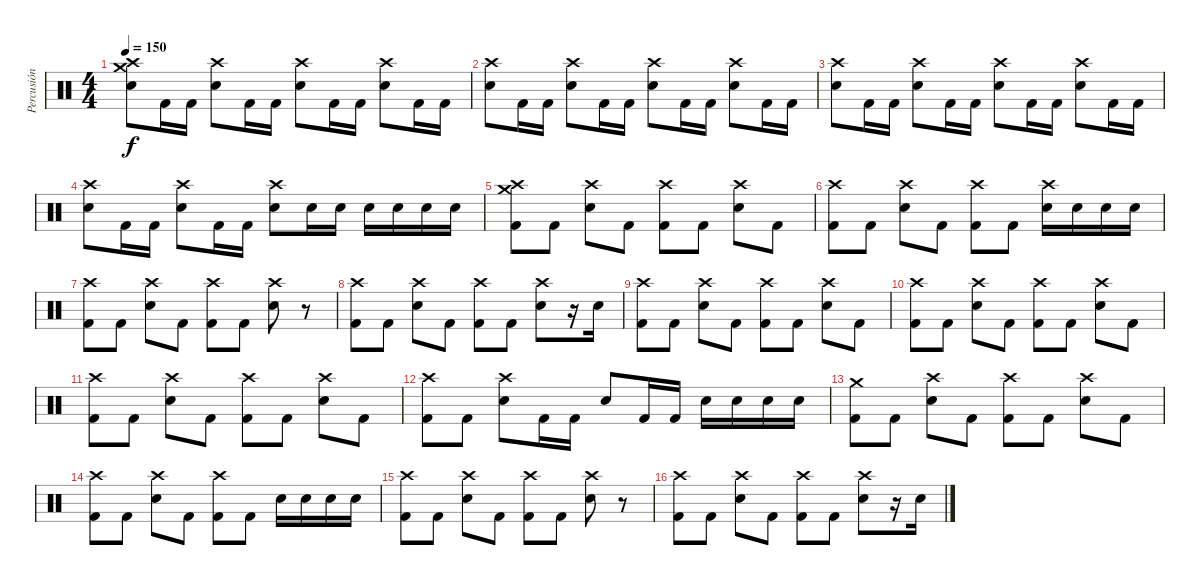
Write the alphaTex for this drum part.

\track ("Percusión" "Percusión") {instrument percussion}
\staff {score}
\articulation defaults
\ts (4 4)
\tempo 150
\clef neutral
\ks c
("Electric Snare (hit)" "Crash high (hit)" "Crash medium (hit)").8{dy f} "Kick (hit) 2".16 "Kick (hit) 2".16 ("Electric Snare (hit)" "Crash high (hit)").8 "Kick (hit) 2".16 "Kick (hit) 2".16 ("Electric Snare (hit)" "Crash high (hit)").8 "Kick (hit) 2".16 "Kick (hit) 2".16 ("Electric Snare (hit)" "Crash high (hit)").8 "Kick (hit) 2".16 "Kick (hit) 2".16 |
("Electric Snare (hit)" "Crash high (hit)").8 "Kick (hit) 2".16 "Kick (hit) 2".16 ("Electric Snare (hit)" "Crash high (hit)").8 "Kick (hit) 2".16 "Kick (hit) 2".16 ("Electric Snare (hit)" "Crash high (hit)").8 "Kick (hit) 2".16 "Kick (hit) 2".16 ("Electric Snare (hit)" "Crash high (hit)").8 "Kick (hit) 2".16 "Kick (hit) 2".16 |
("Electric Snare (hit)" "Crash high (hit)").8 "Kick (hit) 2".16 "Kick (hit) 2".16 ("Electric Snare (hit)" "Crash high (hit)").8 "Kick (hit) 2".16 "Kick (hit) 2".16 ("Electric Snare (hit)" "Crash high (hit)").8 "Kick (hit) 2".16 "Kick (hit) 2".16 ("Electric Snare (hit)" "Crash high (hit)").8 "Kick (hit) 2".16 "Kick (hit) 2".16 |
("Electric Snare (hit)" "Crash high (hit)").8 "Kick (hit) 2".16 "Kick (hit) 2".16 ("Electric Snare (hit)" "Crash high (hit)").8 "Kick (hit) 2".16 "Kick (hit) 2".16 ("Electric Snare (hit)" "Crash high (hit)").8 "Electric Snare (hit)".16 "Electric Snare (hit)".16 "Electric Snare (hit)".16 "Electric Snare (hit)".16 "Electric Snare (hit)".16 "Electric Snare (hit)".16 |
("Kick (hit) 2" "Crash medium (hit)" "Crash high (hit)").8 "Kick (hit) 2".8 ("Electric Snare (hit)" "Crash high (hit)").8 "Kick (hit) 2".8 ("Kick (hit) 2" "Crash high (hit)").8 "Kick (hit) 2".8 ("Electric Snare (hit)" "Crash high (hit)").8 "Kick (hit) 2".8 |
("Kick (hit) 2" "Crash high (hit)").8 "Kick (hit) 2".8 ("Electric Snare (hit)" "Crash high (hit)").8 "Kick (hit) 2".8 ("Kick (hit) 2" "Crash high (hit)").8 "Kick (hit) 2".8 ("Electric Snare (hit)" "Crash high (hit)").16 "Electric Snare (hit)".16 "Electric Snare (hit)".16 "Electric Snare (hit)".16 |
("Kick (hit) 2" "Crash high (hit)").8 "Kick (hit) 2".8 ("Electric Snare (hit)" "Crash high (hit)").8 "Kick (hit) 2".8 ("Kick (hit) 2" "Crash high (hit)").8 "Kick (hit) 2".8 ("Electric Snare (hit)" "Crash high (hit)").8 r.8 |
("Kick (hit) 2" "Crash high (hit)").8 "Kick (hit) 2".8 ("Electric Snare (hit)" "Crash high (hit)").8 "Kick (hit) 2".8 ("Kick (hit) 2" "Crash high (hit)").8 "Kick (hit) 2".8 ("Electric Snare (hit)" "Crash high (hit)").8 r.16 "Electric Snare (hit)".16 |
("Kick (hit) 2" "Crash high (hit)").8 "Kick (hit) 2".8 ("Electric Snare (hit)" "Crash high (hit)").8 "Kick (hit) 2".8 ("Kick (hit) 2" "Crash high (hit)").8 "Kick (hit) 2".8 ("Electric Snare (hit)" "Crash high (hit)").8 "Kick (hit) 2".8 |
("Kick (hit) 2" "Crash high (hit)").8 "Kick (hit) 2".8 ("Electric Snare (hit)" "Crash high (hit)").8 "Kick (hit) 2".8 ("Kick (hit) 2" "Crash high (hit)").8 "Kick (hit) 2".8 ("Electric Snare (hit)" "Crash high (hit)").8 "Kick (hit) 2".8 |
("Kick (hit) 2" "Crash high (hit)").8 "Kick (hit) 2".8 ("Electric Snare (hit)" "Crash high (hit)").8 "Kick (hit) 2".8 ("Kick (hit) 2" "Crash high (hit)").8 "Kick (hit) 2".8 ("Electric Snare (hit)" "Crash high (hit)").8 "Kick (hit) 2".8 |
("Kick (hit) 2" "Crash high (hit)").8 "Kick (hit) 2".8 ("Electric Snare (hit)" "Crash high (hit)").8 "Kick (hit) 2".16 "Kick (hit) 2".16 "Electric Snare (hit)".8 "Kick (hit) 2".16 "Kick (hit) 2".16 "Electric Snare (hit)".16 "Electric Snare (hit)".16 "Electric Snare (hit)".16 "Electric Snare (hit)".16 |
("Kick (hit) 2" "Crash medium (hit)").8 "Kick (hit) 2".8 ("Electric Snare (hit)" "Crash high (hit)").8 "Kick (hit) 2".8 ("Kick (hit) 2" "Crash high (hit)").8 "Kick (hit) 2".8 ("Electric Snare (hit)" "Crash high (hit)").8 "Kick (hit) 2".8 |
("Kick (hit) 2" "Crash high (hit)").8 "Kick (hit) 2".8 ("Electric Snare (hit)" "Crash high (hit)").8 "Kick (hit) 2".8 ("Kick (hit) 2" "Crash high (hit)").8 "Kick (hit) 2".8 "Electric Snare (hit)".16 "Electric Snare (hit)".16 "Electric Snare (hit)".16 "Electric Snare (hit)".16 |
("Kick (hit) 2" "Crash high (hit)").8 "Kick (hit) 2".8 ("Electric Snare (hit)" "Crash high (hit)").8 "Kick (hit) 2".8 ("Kick (hit) 2" "Crash high (hit)").8 "Kick (hit) 2".8 ("Electric Snare (hit)" "Crash high (hit)").8 r.8 |
("Kick (hit) 2" "Crash high (hit)").8 "Kick (hit) 2".8 ("Electric Snare (hit)" "Crash high (hit)").8 "Kick (hit) 2".8 ("Kick (hit) 2" "Crash high (hit)").8 "Kick (hit) 2".8 ("Electric Snare (hit)" "Crash high (hit)").8 r.16 "Electric Snare (hit)".16
